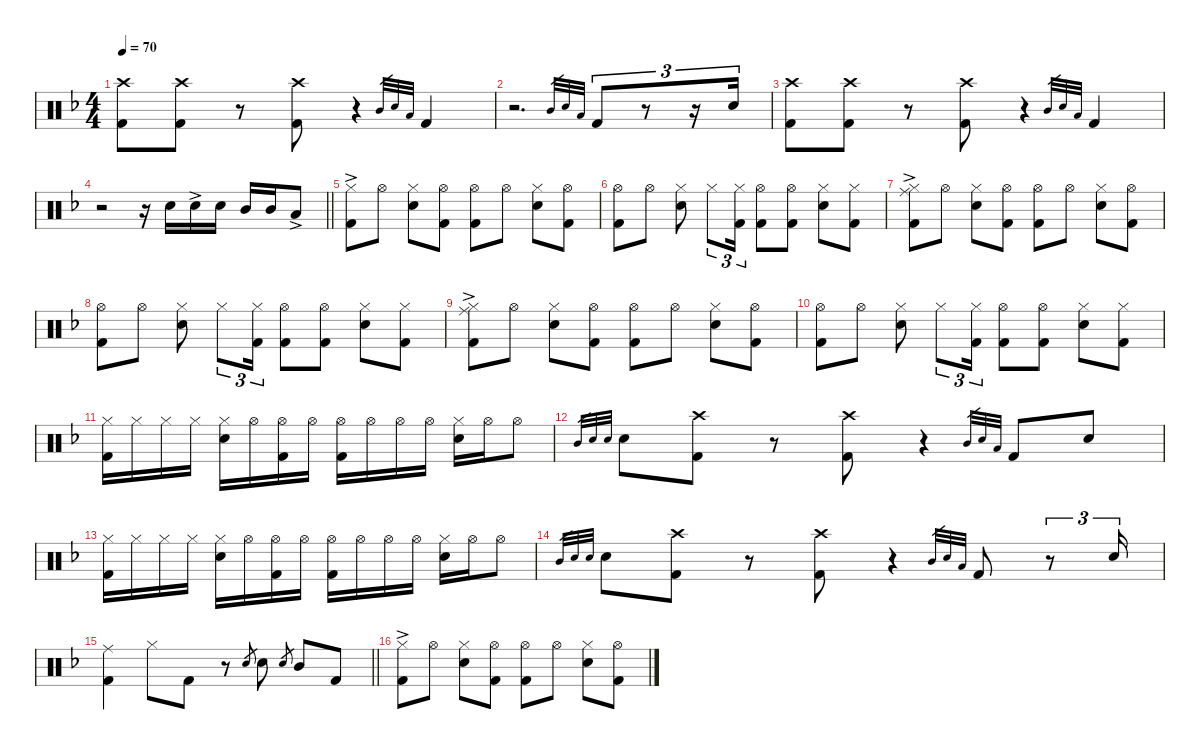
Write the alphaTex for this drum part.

\defaultSystemsLayout 4
\hideDynamics
\bracketExtendMode nobrackets
\singleTrackTrackNamePolicy hidden
\multiTrackTrackNamePolicy hidden
\otherSystemsTrackNameOrientation horizontal
\track ("Percussion" "drm.") {defaultSystemsLayout 4 instrument percussion}
\staff {score}
\articulation defaults
\ts (4 4)
\beaming (8 2 2 2 2)
\tempo 70
\clef neutral
\ks f
("Crash high (hit)"{acc forcenatural} "Kick (hit) 2"{acc forcenatural}).8{dy mp beam Down} ("Crash high (hit)"{acc forcenatural} "Kick (hit) 2"{acc forcenatural}).8{beam Down} r.8{beam Down} ("Crash high (hit)"{acc forcenatural} "Kick (hit) 2"{acc forcenatural}).8{beam Down} r.4{beam Down} "Mid Tom (hit)"{acc forcenatural}.32{gr dy ppp beam Up} "Snare (hit) 2"{acc forcenatural}.32{gr beam Up} "Low Tom (hit)"{acc forcenatural}.32{gr beam Up} "Kick (hit) 2"{acc forcenatural}.4{dy f beam Up} |
r.2{d beam Down} "Mid Tom (hit)"{acc forcenatural}.32{gr dy pp beam Up} "Snare (hit) 2"{acc forcenatural}.32{gr beam Up} "Low Tom (hit)"{acc forcenatural}.32{gr beam Up} "Kick (hit) 2"{acc forcenatural}.8{tu (3 2) dy f beam Up} r.8{tu (3 2) beam Up} r.16{tu (3 2) beam Up} "Snare (hit) 2"{acc forcenatural}.16{tu (3 2) beam Up} |
("Crash high (hit)"{acc forcenatural} "Kick (hit) 2"{acc forcenatural}).8{dy mp beam Down} ("Crash high (hit)"{acc forcenatural} "Kick (hit) 2"{acc forcenatural}).8{beam Down} r.8{beam Down} ("Crash high (hit)"{acc forcenatural} "Kick (hit) 2"{acc forcenatural}).8{beam Down} r.4{beam Down} "Mid Tom (hit)"{acc forcenatural}.32{gr dy pp beam Up} "Snare (hit) 2"{acc forcenatural}.32{gr beam Up} "Low Tom (hit)"{acc forcenatural}.32{gr beam Up} "Kick (hit) 2"{acc forcenatural}.4{dy f beam Up} |
\barLineRight lightlight
r.2{beam Down} r.16{beam Down} "Snare (hit) 2"{acc forcenatural}.16{beam Down} "Snare (hit) 2"{ac acc forcenatural}.16{beam Down} "Snare (hit) 2"{acc forcenatural}.16{beam Down} "Mid Tom (hit)"{acc forcenatural}.16{beam Up} "Mid Tom (hit)"{acc forcenatural}.16{beam Up} "Low Tom (hit)"{ac acc forcenatural}.8{beam Up} |
("Hi-Hat (closed)"{ac acc forcenatural} "Kick (hit) 2"{acc forcenatural}).8{beam Down} "Hi-Hat (open)"{acc forcenatural}.8{beam Down} ("Hi-Hat (closed)"{acc forcenatural} "Snare (hit) 2"{acc forcenatural}).8{beam Down} ("Hi-Hat (open)"{acc forcenatural} "Kick (hit) 2"{acc forcenatural}).8{beam Down} ("Hi-Hat (open)"{acc forcenatural} "Kick (hit) 2"{acc forcenatural}).8{beam Down} "Hi-Hat (open)"{acc forcenatural}.8{beam Down} ("Hi-Hat (closed)"{acc forcenatural} "Snare (hit) 2"{acc forcenatural}).8{beam Down} ("Hi-Hat (open)"{acc forcenatural} "Kick (hit) 2"{acc forcenatural}).8{beam Down} |
("Hi-Hat (open)"{acc forcenatural} "Kick (hit) 2"{acc forcenatural}).8{beam Down} "Hi-Hat (open)"{acc forcenatural}.8{beam Down} ("Hi-Hat (closed)"{acc forcenatural} "Snare (hit) 2"{acc forcenatural}).8{beam Down} "Hi-Hat (closed)"{acc forcenatural}.8{tu (3 2) beam Down} ("Hi-Hat (closed)"{acc forcenatural} "Kick (hit) 2"{acc forcenatural}).16{tu (3 2) beam Down} ("Hi-Hat (open)"{acc forcenatural} "Kick (hit) 2"{acc forcenatural}).8{beam Down} ("Hi-Hat (open)"{acc forcenatural} "Kick (hit) 2"{acc forcenatural}).8{beam Down} ("Hi-Hat (closed)"{acc forcenatural} "Snare (hit) 2"{acc forcenatural}).8{beam Down} ("Hi-Hat (closed)"{acc forcenatural} "Kick (hit) 2"{acc forcenatural}).8{beam Down} |
("Hi-Hat (closed)"{ac acc forcenatural} "Kick (hit) 2"{acc forcenatural} "Ride (middle)"{acc forcenatural}).8{beam Down} "Hi-Hat (open)"{acc forcenatural}.8{beam Down} ("Hi-Hat (closed)"{acc forcenatural} "Snare (hit) 2"{acc forcenatural}).8{beam Down} ("Hi-Hat (open)"{acc forcenatural} "Kick (hit) 2"{acc forcenatural}).8{beam Down} ("Hi-Hat (open)"{acc forcenatural} "Kick (hit) 2"{acc forcenatural}).8{beam Down} "Hi-Hat (open)"{acc forcenatural}.8{beam Down} ("Hi-Hat (closed)"{acc forcenatural} "Snare (hit) 2"{acc forcenatural}).8{beam Down} ("Hi-Hat (open)"{acc forcenatural} "Kick (hit) 2"{acc forcenatural}).8{beam Down} |
("Hi-Hat (open)"{acc forcenatural} "Kick (hit) 2"{acc forcenatural}).8{beam Down} "Hi-Hat (open)"{acc forcenatural}.8{beam Down} ("Hi-Hat (closed)"{acc forcenatural} "Snare (hit) 2"{acc forcenatural}).8{beam Down} "Hi-Hat (closed)"{acc forcenatural}.8{tu (3 2) beam Down} ("Hi-Hat (closed)"{acc forcenatural} "Kick (hit) 2"{acc forcenatural}).16{tu (3 2) beam Down} ("Hi-Hat (open)"{acc forcenatural} "Kick (hit) 2"{acc forcenatural}).8{beam Down} ("Hi-Hat (open)"{acc forcenatural} "Kick (hit) 2"{acc forcenatural}).8{beam Down} ("Hi-Hat (closed)"{acc forcenatural} "Snare (hit) 2"{acc forcenatural}).8{beam Down} ("Hi-Hat (closed)"{acc forcenatural} "Kick (hit) 2"{acc forcenatural}).8{beam Down} |
("Hi-Hat (closed)"{ac acc forcenatural} "Kick (hit) 2"{acc forcenatural} "Ride (middle)"{acc forcenatural}).8{beam Down} "Hi-Hat (open)"{acc forcenatural}.8{beam Down} ("Hi-Hat (closed)"{acc forcenatural} "Snare (hit) 2"{acc forcenatural}).8{beam Down} ("Hi-Hat (open)"{acc forcenatural} "Kick (hit) 2"{acc forcenatural}).8{beam Down} ("Hi-Hat (open)"{acc forcenatural} "Kick (hit) 2"{acc forcenatural}).8{beam Down} "Hi-Hat (open)"{acc forcenatural}.8{beam Down} ("Hi-Hat (closed)"{acc forcenatural} "Snare (hit) 2"{acc forcenatural}).8{beam Down} ("Hi-Hat (open)"{acc forcenatural} "Kick (hit) 2"{acc forcenatural}).8{beam Down} |
("Hi-Hat (open)"{acc forcenatural} "Kick (hit) 2"{acc forcenatural}).8{beam Down} "Hi-Hat (open)"{acc forcenatural}.8{beam Down} ("Hi-Hat (closed)"{acc forcenatural} "Snare (hit) 2"{acc forcenatural}).8{beam Down} "Hi-Hat (closed)"{acc forcenatural}.8{tu (3 2) beam Down} ("Hi-Hat (closed)"{acc forcenatural} "Kick (hit) 2"{acc forcenatural}).16{tu (3 2) beam Down} ("Hi-Hat (open)"{acc forcenatural} "Kick (hit) 2"{acc forcenatural}).8{beam Down} ("Hi-Hat (open)"{acc forcenatural} "Kick (hit) 2"{acc forcenatural}).8{beam Down} ("Hi-Hat (closed)"{acc forcenatural} "Snare (hit) 2"{acc forcenatural}).8{beam Down} ("Hi-Hat (closed)"{acc forcenatural} "Kick (hit) 2"{acc forcenatural}).8{beam Down} |
("Hi-Hat (closed)"{acc forcenatural} "Kick (hit) 2"{acc forcenatural}).16{beam Down} "Hi-Hat (closed)"{acc forcenatural}.16{beam Down} "Hi-Hat (closed)"{acc forcenatural}.16{beam Down} "Hi-Hat (closed)"{acc forcenatural}.16{beam Down} ("Hi-Hat (closed)"{acc forcenatural} "Snare (hit) 2"{acc forcenatural}).16{beam Down} "Hi-Hat (open)"{acc forcenatural}.16{beam Down} ("Hi-Hat (open)"{acc forcenatural} "Kick (hit) 2"{acc forcenatural}).16{beam Down} "Hi-Hat (open)"{acc forcenatural}.16{beam Down} ("Hi-Hat (open)"{acc forcenatural} "Kick (hit) 2"{acc forcenatural}).16{beam Down} "Hi-Hat (open)"{acc forcenatural}.16{beam Down} "Hi-Hat (open)"{acc forcenatural}.16{beam Down} "Hi-Hat (open)"{acc forcenatural}.16{beam Down} ("Hi-Hat (closed)"{acc forcenatural} "Snare (hit) 2"{acc forcenatural}).16{beam Down} "Hi-Hat (open)"{acc forcenatural}.16{beam Down} "Hi-Hat (open)"{acc forcenatural}.8{beam Down} |
"Mid Tom (hit)"{acc forcenatural}.32{gr dy pp beam Up} "Snare (hit) 2"{acc forcenatural}.32{gr beam Up} "Snare (hit) 2"{acc forcenatural}.32{gr beam Up} "Snare (hit) 2"{acc forcenatural}.8{dy f beam Down} ("Crash high (hit)"{acc forcenatural} "Kick (hit) 2"{acc forcenatural}).8{beam Down} r.8{beam Down} ("Crash high (hit)"{acc forcenatural} "Kick (hit) 2"{acc forcenatural}).8{beam Down} r.4{beam Down} "Mid Tom (hit)"{acc forcenatural}.32{gr dy pp beam Up} "Snare (hit) 2"{acc forcenatural}.32{gr beam Up} "Low Tom (hit)"{acc forcenatural}.32{gr beam Up} "Kick (hit) 2"{acc forcenatural}.8{dy f beam Up} "Snare (hit) 2"{acc forcenatural}.8{beam Up} |
("Hi-Hat (closed)"{acc forcenatural} "Kick (hit) 2"{acc forcenatural}).16{beam Down} "Hi-Hat (closed)"{acc forcenatural}.16{beam Down} "Hi-Hat (closed)"{acc forcenatural}.16{beam Down} "Hi-Hat (closed)"{acc forcenatural}.16{beam Down} ("Hi-Hat (closed)"{acc forcenatural} "Snare (hit) 2"{acc forcenatural}).16{beam Down} "Hi-Hat (open)"{acc forcenatural}.16{beam Down} ("Hi-Hat (open)"{acc forcenatural} "Kick (hit) 2"{acc forcenatural}).16{beam Down} "Hi-Hat (open)"{acc forcenatural}.16{beam Down} ("Hi-Hat (open)"{acc forcenatural} "Kick (hit) 2"{acc forcenatural}).16{beam Down} "Hi-Hat (open)"{acc forcenatural}.16{beam Down} "Hi-Hat (open)"{acc forcenatural}.16{beam Down} "Hi-Hat (open)"{acc forcenatural}.16{beam Down} ("Hi-Hat (closed)"{acc forcenatural} "Snare (hit) 2"{acc forcenatural}).16{beam Down} "Hi-Hat (open)"{acc forcenatural}.16{beam Down} "Hi-Hat (open)"{acc forcenatural}.8{beam Down} |
"Mid Tom (hit)"{acc forcenatural}.32{gr dy pp beam Up} "Snare (hit) 2"{acc forcenatural}.32{gr beam Up} "Snare (hit) 2"{acc forcenatural}.32{gr beam Up} "Snare (hit) 2"{acc forcenatural}.8{dy f beam Down} ("Crash high (hit)"{acc forcenatural} "Kick (hit) 2"{acc forcenatural}).8{beam Down} r.8{beam Down} ("Crash high (hit)"{acc forcenatural} "Kick (hit) 2"{acc forcenatural}).8{beam Down} r.4{beam Down} "Mid Tom (hit)"{acc forcenatural}.32{gr dy pp beam Up} "Snare (hit) 2"{acc forcenatural}.32{gr beam Up} "Low Tom (hit)"{acc forcenatural}.32{gr beam Up} "Kick (hit) 2"{acc forcenatural}.8{dy f beam Up} r.8{tu (3 2) beam Up} "Snare (hit) 2"{acc forcenatural}.16{tu (3 2) beam Down} |
\barLineRight lightlight
("Ride (middle)"{acc forcenatural} "Kick (hit) 2"{acc forcenatural}).4{beam Down} "Hi-Hat (closed)"{acc forcenatural}.8{beam Down} "Kick (hit) 2"{acc forcenatural}.8{beam Down} r.8{beam Down} "Snare (hit) 2"{acc forcenatural}.8{gr dy p beam Up} "Snare (hit) 2"{acc forcenatural}.8{dy f beam Down} "Snare (hit) 2"{acc forcenatural}.8{gr dy p beam Up} "Mid Tom (hit)"{acc forcenatural}.8{dy f beam Up} "Kick (hit) 2"{acc forcenatural}.8{beam Up} |
("Hi-Hat (closed)"{ac acc forcenatural} "Kick (hit) 2"{acc forcenatural}).8{beam Down} "Hi-Hat (open)"{acc forcenatural}.8{beam Down} ("Hi-Hat (closed)"{acc forcenatural} "Snare (hit) 2"{acc forcenatural}).8{beam Down} ("Hi-Hat (open)"{acc forcenatural} "Kick (hit) 2"{acc forcenatural}).8{beam Down} ("Hi-Hat (open)"{acc forcenatural} "Kick (hit) 2"{acc forcenatural}).8{beam Down} "Hi-Hat (open)"{acc forcenatural}.8{beam Down} ("Hi-Hat (closed)"{acc forcenatural} "Snare (hit) 2"{acc forcenatural}).8{beam Down} ("Hi-Hat (open)"{acc forcenatural} "Kick (hit) 2"{acc forcenatural}).8{beam Down}
